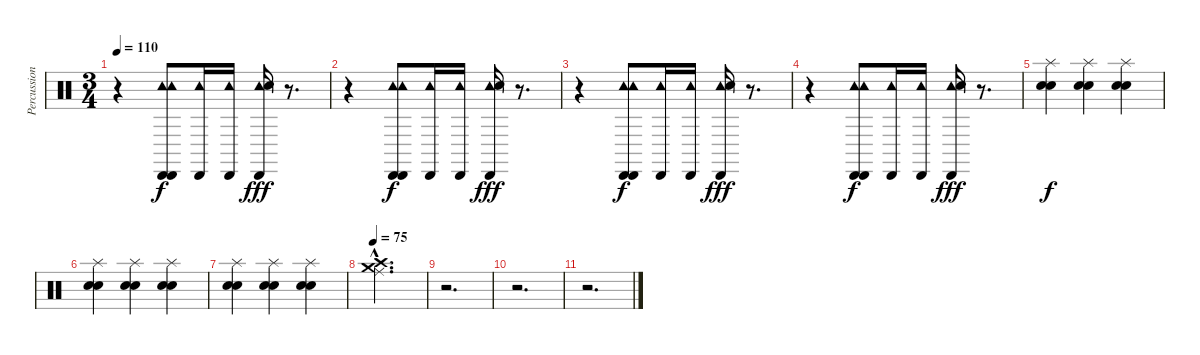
\track ("Percussion" "Percussion") {instrument percussion}
\staff {score}
\articulation defaults
\ts (3 4)
\tempo 110
\clef neutral
\ks c
r.4{dy fff} ("Cabasa (hit)" "Cabasa (hit)" "Tambourine (hit)" "Tambourine (hit)").8{dy f} ("Tambourine (hit)" "Cabasa (hit)").16 ("Tambourine (hit)" "Cabasa (hit)").16 ("Tambourine (hit)" "Cabasa (hit)" "Electric Snare (hit)").16{dy fff} r.8{d} |
r.4 ("Cabasa (hit)" "Cabasa (hit)" "Tambourine (hit)" "Tambourine (hit)").8{dy f} ("Tambourine (hit)" "Cabasa (hit)").16 ("Tambourine (hit)" "Cabasa (hit)").16 ("Tambourine (hit)" "Cabasa (hit)" "Electric Snare (hit)").16{dy fff} r.8{d} |
r.4 ("Cabasa (hit)" "Cabasa (hit)" "Tambourine (hit)" "Tambourine (hit)").8{dy f} ("Tambourine (hit)" "Cabasa (hit)").16 ("Tambourine (hit)" "Cabasa (hit)").16 ("Tambourine (hit)" "Cabasa (hit)" "Electric Snare (hit)").16{dy fff} r.8{d} |
r.4 ("Cabasa (hit)" "Cabasa (hit)" "Tambourine (hit)" "Tambourine (hit)").8{dy f} ("Tambourine (hit)" "Cabasa (hit)").16 ("Tambourine (hit)" "Cabasa (hit)").16 ("Tambourine (hit)" "Cabasa (hit)" "Electric Snare (hit)").16{dy fff} r.8{d} |
("Splash (hit)" "Electric Snare (hit)" "Snare (hit) 2").4{dy f} ("Splash (hit)" "Electric Snare (hit)" "Snare (hit) 2").4 ("Splash (hit)" "Electric Snare (hit)" "Snare (hit) 2").4 |
("Splash (hit)" "Electric Snare (hit)" "Snare (hit) 2").4 ("Splash (hit)" "Electric Snare (hit)" "Snare (hit) 2").4 ("Splash (hit)" "Electric Snare (hit)" "Snare (hit) 2").4 |
("Splash (hit)" "Electric Snare (hit)" "Snare (hit) 2").4 ("Splash (hit)" "Electric Snare (hit)" "Snare (hit) 2").4 ("Splash (hit)" "Electric Snare (hit)" "Snare (hit) 2").4 |
\tempo 75
("Crash medium (hit)"{hac} "Ride (middle)"{hac} "Crash high (hit)"{hac}).2{d} |
r.2{d} |
r.2{d} |
r.2{d}
